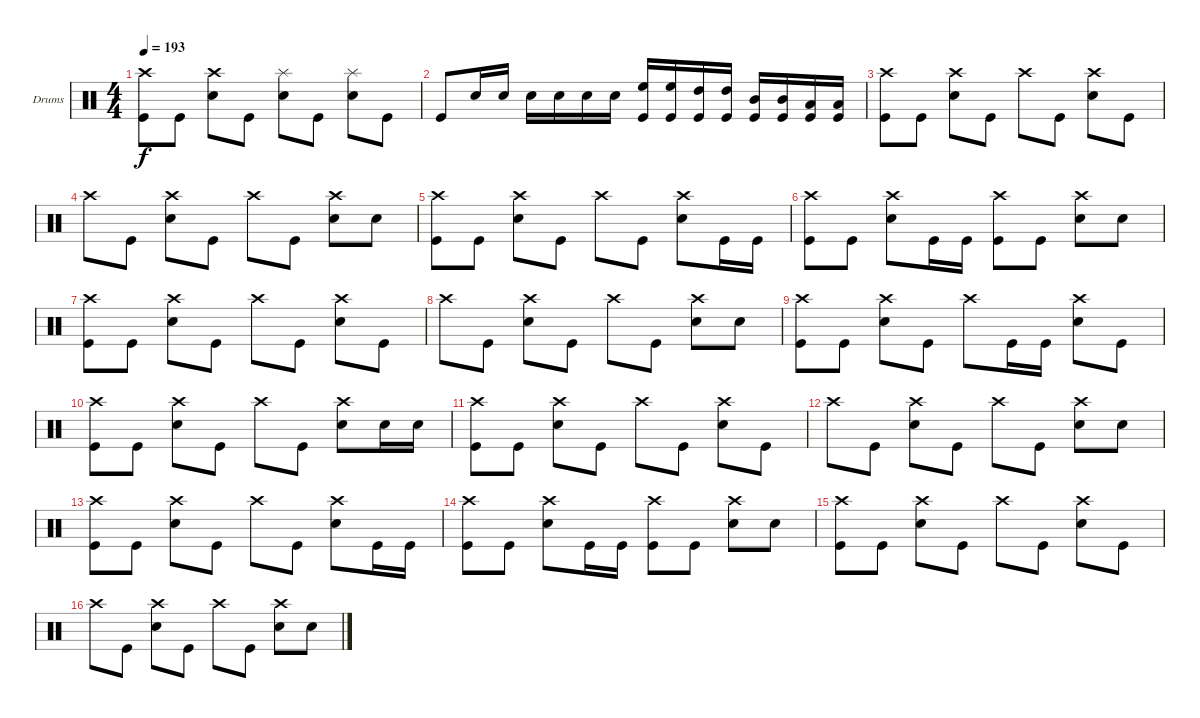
\bracketExtendMode groupsimilarinstruments
\firstSystemTrackNameOrientation horizontal
\otherSystemsTrackNameOrientation horizontal
\track ("Drumkit" "Drums") {instrument percussion}
\staff {score}
\articulation defaults
\ts (4 4)
\tempo 193
\clef neutral
\ks c
("Crash high (hit)" "Kick (hit)").8{dy f} "Kick (hit)".8 ("Crash high (hit)" "Snare (hit) 2").8 "Kick (hit)".8 ("Splash (hit)" "Snare (hit) 2").8 "Kick (hit)".8 ("Splash (hit)" "Snare (hit) 2").8 "Kick (hit)".8 |
"Kick (hit)".8 "Snare (hit) 2".16 "Snare (hit) 2".16 "Snare (hit) 2".16 "Snare (hit) 2".16 "Snare (hit) 2".16 "Snare (hit) 2".16 ("High Floor Tom (hit)" "Kick (hit)").16 ("High Floor Tom (hit)" "Kick (hit)").16 ("High Tom (hit)" "Kick (hit)").16 ("High Tom (hit)" "Kick (hit)").16 ("Mid Tom (hit)" "Kick (hit)").16 ("Mid Tom (hit)" "Kick (hit)").16 ("Low Tom (hit)" "Kick (hit)").16 ("Low Tom (hit)" "Kick (hit)").16 |
("Crash high (hit)" "Kick (hit)").8 "Kick (hit)".8 ("Crash high (hit)" "Snare (hit) 2").8 "Kick (hit)".8 "Crash high (hit)".8 "Kick (hit)".8 ("Crash high (hit)" "Snare (hit) 2").8 "Kick (hit)".8 |
"Crash high (hit)".8 "Kick (hit)".8 ("Crash high (hit)" "Snare (hit) 2").8 "Kick (hit)".8 "Crash high (hit)".8 "Kick (hit)".8 ("Crash high (hit)" "Snare (hit) 2").8 "Snare (hit) 2".8 |
("Crash high (hit)" "Kick (hit)").8 "Kick (hit)".8 ("Crash high (hit)" "Snare (hit) 2").8 "Kick (hit)".8 "Crash high (hit)".8 "Kick (hit)".8 ("Crash high (hit)" "Snare (hit) 2").8 "Kick (hit)".16 "Kick (hit)".16 |
("Crash high (hit)" "Kick (hit)").8 "Kick (hit)".8 ("Crash high (hit)" "Snare (hit) 2").8 "Kick (hit)".16 "Kick (hit)".16 ("Crash high (hit)" "Kick (hit)").8 "Kick (hit)".8 ("Crash high (hit)" "Snare (hit) 2").8 "Snare (hit) 2".8 |
("Crash high (hit)" "Kick (hit)").8 "Kick (hit)".8 ("Crash high (hit)" "Snare (hit) 2").8 "Kick (hit)".8 "Crash high (hit)".8 "Kick (hit)".8 ("Crash high (hit)" "Snare (hit) 2").8 "Kick (hit)".8 |
"Crash high (hit)".8 "Kick (hit)".8 ("Crash high (hit)" "Snare (hit) 2").8 "Kick (hit)".8 "Crash high (hit)".8 "Kick (hit)".8 ("Crash high (hit)" "Snare (hit) 2").8 "Snare (hit) 2".8 |
("Crash high (hit)" "Kick (hit)").8 "Kick (hit)".8 ("Crash high (hit)" "Snare (hit) 2").8 "Kick (hit)".8 "Crash high (hit)".8 "Kick (hit)".16 "Kick (hit)".16 ("Crash high (hit)" "Snare (hit) 2").8 "Kick (hit)".8 |
("Crash high (hit)" "Kick (hit)").8 "Kick (hit)".8 ("Crash high (hit)" "Snare (hit) 2").8 "Kick (hit)".8 "Crash high (hit)".8 "Kick (hit)".8 ("Crash high (hit)" "Snare (hit) 2").8 "Snare (hit) 2".16 "Snare (hit) 2".16 |
("Crash high (hit)" "Kick (hit)").8 "Kick (hit)".8 ("Crash high (hit)" "Snare (hit) 2").8 "Kick (hit)".8 "Crash high (hit)".8 "Kick (hit)".8 ("Crash high (hit)" "Snare (hit) 2").8 "Kick (hit)".8 |
"Crash high (hit)".8 "Kick (hit)".8 ("Crash high (hit)" "Snare (hit) 2").8 "Kick (hit)".8 "Crash high (hit)".8 "Kick (hit)".8 ("Crash high (hit)" "Snare (hit) 2").8 "Snare (hit) 2".8 |
("Crash high (hit)" "Kick (hit)").8 "Kick (hit)".8 ("Crash high (hit)" "Snare (hit) 2").8 "Kick (hit)".8 "Crash high (hit)".8 "Kick (hit)".8 ("Crash high (hit)" "Snare (hit) 2").8 "Kick (hit)".16 "Kick (hit)".16 |
("Crash high (hit)" "Kick (hit)").8 "Kick (hit)".8 ("Crash high (hit)" "Snare (hit) 2").8 "Kick (hit)".16 "Kick (hit)".16 ("Crash high (hit)" "Kick (hit)").8 "Kick (hit)".8 ("Crash high (hit)" "Snare (hit) 2").8 "Snare (hit) 2".8 |
("Crash high (hit)" "Kick (hit)").8 "Kick (hit)".8 ("Crash high (hit)" "Snare (hit) 2").8 "Kick (hit)".8 "Crash high (hit)".8 "Kick (hit)".8 ("Crash high (hit)" "Snare (hit) 2").8 "Kick (hit)".8 |
"Crash high (hit)".8 "Kick (hit)".8 ("Crash high (hit)" "Snare (hit) 2").8 "Kick (hit)".8 "Crash high (hit)".8 "Kick (hit)".8 ("Crash high (hit)" "Snare (hit) 2").8 "Snare (hit) 2".8
